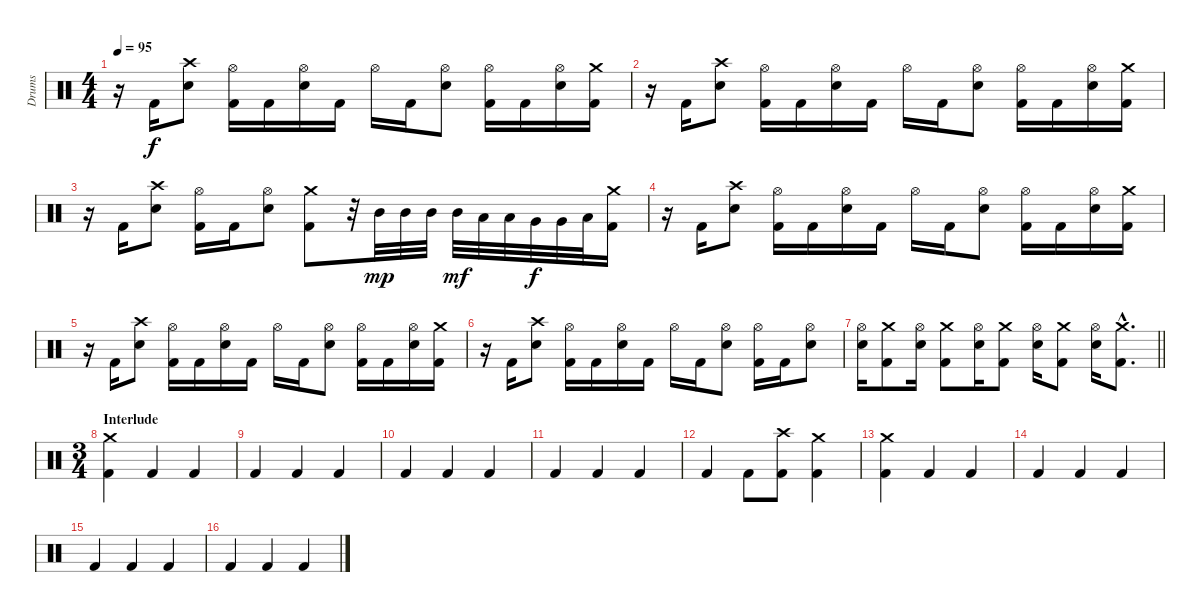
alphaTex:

\track ("Drums" "Drums") {instrument percussion}
\staff {score}
\articulation defaults
\ts (4 4)
\tempo 95
\clef neutral
\ks c
r.16{dy f} "Kick (hit) 2".16 ("Crash high (hit)" "Snare (hit) 2").8 ("Hi-Hat (open)" "Kick (hit) 2").16 "Kick (hit) 2".16 ("Hi-Hat (open)" "Snare (hit) 2").16 "Kick (hit) 2".16 "Hi-Hat (open)".16 "Kick (hit) 2".16 ("Hi-Hat (open)" "Snare (hit) 2").8 ("Hi-Hat (open)" "Kick (hit) 2").16 "Kick (hit) 2".16 ("Hi-Hat (open)" "Snare (hit) 2").16 ("Crash medium (hit)" "Kick (hit) 2").16 |
r.16 "Kick (hit) 2".16 ("Crash high (hit)" "Snare (hit) 2").8 ("Hi-Hat (open)" "Kick (hit) 2").16 "Kick (hit) 2".16 ("Hi-Hat (open)" "Snare (hit) 2").16 "Kick (hit) 2".16 "Hi-Hat (open)".16 "Kick (hit) 2".16 ("Hi-Hat (open)" "Snare (hit) 2").8 ("Hi-Hat (open)" "Kick (hit) 2").16 "Kick (hit) 2".16 ("Hi-Hat (open)" "Snare (hit) 2").16 ("Crash medium (hit)" "Kick (hit) 2").16 |
r.16 "Kick (hit) 2".16 ("Crash high (hit)" "Snare (hit) 2").8 ("Hi-Hat (open)" "Kick (hit) 2").16 "Kick (hit) 2".16 ("Hi-Hat (open)" "Snare (hit) 2").8 ("Crash medium (hit)" "Kick (hit) 2").8 r.32 "Mid Tom (hit)".32{dy mp} "Mid Tom (hit)".32 "Mid Tom (hit)".32 "Mid Tom (hit)".32{dy mf} "Low Tom (hit)".32 "Low Tom (hit)".32 "Very Low Tom (hit)".32{dy f} "Very Low Tom (hit)".32 "Low Floor Tom (hit)".32 ("Crash medium (hit)" "Kick (hit) 2").16 |
r.16 "Kick (hit) 2".16 ("Crash high (hit)" "Snare (hit) 2").8 ("Hi-Hat (open)" "Kick (hit) 2").16 "Kick (hit) 2".16 ("Hi-Hat (open)" "Snare (hit) 2").16 "Kick (hit) 2".16 "Hi-Hat (open)".16 "Kick (hit) 2".16 ("Hi-Hat (open)" "Snare (hit) 2").8 ("Hi-Hat (open)" "Kick (hit) 2").16 "Kick (hit) 2".16 ("Hi-Hat (open)" "Snare (hit) 2").16 ("Crash medium (hit)" "Kick (hit) 2").16 |
r.16 "Kick (hit) 2".16 ("Crash high (hit)" "Snare (hit) 2").8 ("Hi-Hat (open)" "Kick (hit) 2").16 "Kick (hit) 2".16 ("Hi-Hat (open)" "Snare (hit) 2").16 "Kick (hit) 2".16 "Hi-Hat (open)".16 "Kick (hit) 2".16 ("Hi-Hat (open)" "Snare (hit) 2").8 ("Hi-Hat (open)" "Kick (hit) 2").16 "Kick (hit) 2".16 ("Hi-Hat (open)" "Snare (hit) 2").16 ("Crash medium (hit)" "Kick (hit) 2").16 |
r.16 "Kick (hit) 2".16 ("Crash high (hit)" "Snare (hit) 2").8 ("Hi-Hat (open)" "Kick (hit) 2").16 "Kick (hit) 2".16 ("Hi-Hat (open)" "Snare (hit) 2").16 "Kick (hit) 2".16 "Hi-Hat (open)".16 "Kick (hit) 2".16 ("Hi-Hat (open)" "Snare (hit) 2").8 ("Hi-Hat (open)" "Kick (hit) 2").16 "Kick (hit) 2".16 ("Hi-Hat (open)" "Snare (hit) 2").8 |
\barLineRight lightlight
("Hi-Hat (open)" "Snare (hit) 2").16 ("Crash medium (hit)" "Kick (hit) 2").8 ("Hi-Hat (open)" "Snare (hit) 2").16 ("Crash medium (hit)" "Kick (hit) 2").8 ("Hi-Hat (open)" "Snare (hit) 2").16 ("Crash medium (hit)" "Kick (hit) 2").8 ("Hi-Hat (open)" "Snare (hit) 2").16 ("Crash medium (hit)" "Kick (hit) 2").8 ("Hi-Hat (open)" "Snare (hit) 2").16 ("Crash medium (hit)"{hac} "Kick (hit) 2"{hac}).8{d} |
\ts (3 4)
\section ("" "Interlude")
("Crash medium (hit)" "Kick (hit) 2").4 "Kick (hit) 2".4 "Kick (hit) 2".4 |
"Kick (hit) 2".4 "Kick (hit) 2".4 "Kick (hit) 2".4 |
"Kick (hit) 2".4 "Kick (hit) 2".4 "Kick (hit) 2".4 |
"Kick (hit) 2".4 "Kick (hit) 2".4 "Kick (hit) 2".4 |
"Kick (hit) 2".4 "Kick (hit) 2".8 ("Crash high (hit)" "Kick (hit) 2").8 ("Crash medium (hit)" "Kick (hit) 2").4 |
("Crash medium (hit)" "Kick (hit) 2").4 "Kick (hit) 2".4 "Kick (hit) 2".4 |
"Kick (hit) 2".4 "Kick (hit) 2".4 "Kick (hit) 2".4 |
"Kick (hit) 2".4 "Kick (hit) 2".4 "Kick (hit) 2".4 |
"Kick (hit) 2".4 "Kick (hit) 2".4 "Kick (hit) 2".4
